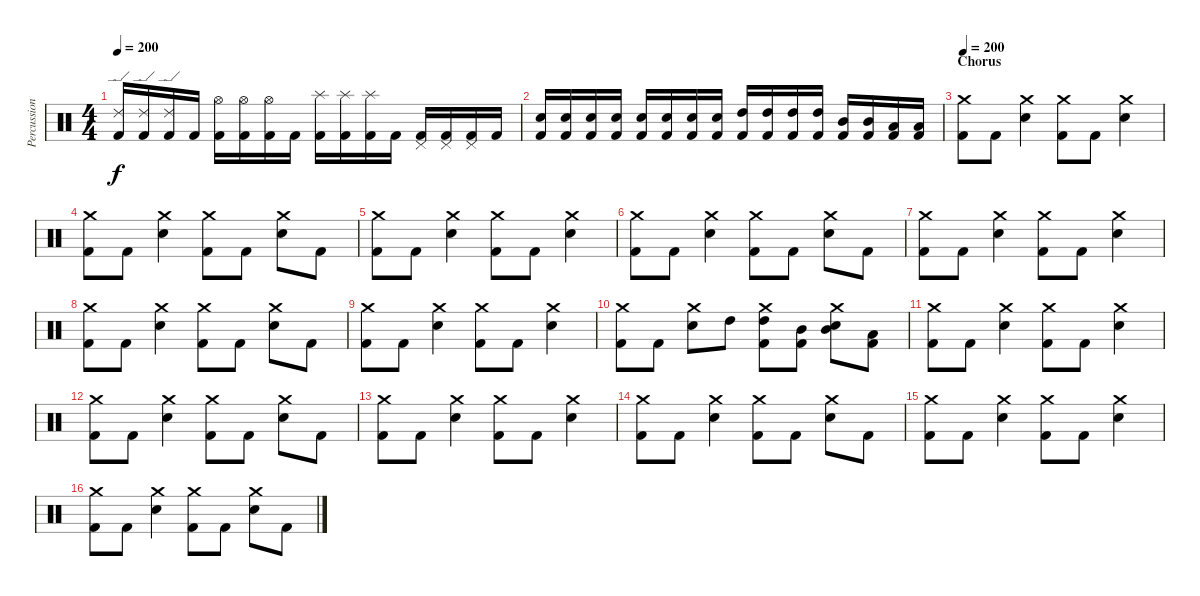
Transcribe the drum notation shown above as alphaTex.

\track ("Percussions" "Percussion") {instrument percussion}
\staff {score}
\articulation defaults
\ts (4 4)
\tempo 200
\clef neutral
\ks c
("Ride (edge) 2" "Kick (hit) 2").16{dy f} ("Ride (edge) 2" "Kick (hit) 2").16 ("Ride (edge) 2" "Kick (hit) 2").16 "Kick (hit) 2".16 ("Hi-Hat (open)" "Kick (hit) 2").16 ("Hi-Hat (open)" "Kick (hit) 2").16 ("Hi-Hat (open)" "Kick (hit) 2").16 "Kick (hit) 2".16 ("Splash (hit)" "Kick (hit) 2").16 ("Splash (hit)" "Kick (hit) 2").16 ("Splash (hit)" "Kick (hit) 2").16 "Kick (hit) 2".16 ("Pedal Hi-Hat (hit)" "Kick (hit) 2").16 ("Pedal Hi-Hat (hit)" "Kick (hit) 2").16 ("Pedal Hi-Hat (hit)" "Kick (hit) 2").16 "Kick (hit) 2".16 |
("Electric Snare (hit)" "Kick (hit) 2").16 ("Electric Snare (hit)" "Kick (hit) 2").16 ("Electric Snare (hit)" "Kick (hit) 2").16 ("Electric Snare (hit)" "Kick (hit) 2").16 ("Electric Snare (hit)" "Kick (hit) 2").16 ("Electric Snare (hit)" "Kick (hit) 2").16 ("Electric Snare (hit)" "Kick (hit) 2").16 ("Electric Snare (hit)" "Kick (hit) 2").16 ("High Tom (hit)" "Kick (hit) 2").16 ("High Tom (hit)" "Kick (hit) 2").16 ("High Tom (hit)" "Kick (hit) 2").16 ("High Tom (hit)" "Kick (hit) 2").16 ("Mid Tom (hit)" "Kick (hit) 2").16 ("Mid Tom (hit)" "Kick (hit) 2").16 ("Low Tom (hit)" "Kick (hit) 2").16 ("Low Tom (hit)" "Kick (hit) 2").16 |
\section ("" "Chorus")
\tempo 200
("Crash medium (hit)" "Kick (hit) 2").8 "Kick (hit) 2".8 ("Crash medium (hit)" "Electric Snare (hit)").4 ("Crash medium (hit)" "Kick (hit) 2").8 "Kick (hit) 2".8 ("Crash medium (hit)" "Electric Snare (hit)").4 |
("Crash medium (hit)" "Kick (hit) 2").8 "Kick (hit) 2".8 ("Crash medium (hit)" "Electric Snare (hit)").4 ("Crash medium (hit)" "Kick (hit) 2").8 "Kick (hit) 2".8 ("Crash medium (hit)" "Electric Snare (hit)").8 "Kick (hit) 2".8 |
("Crash medium (hit)" "Kick (hit) 2").8 "Kick (hit) 2".8 ("Crash medium (hit)" "Electric Snare (hit)").4 ("Crash medium (hit)" "Kick (hit) 2").8 "Kick (hit) 2".8 ("Crash medium (hit)" "Electric Snare (hit)").4 |
("Crash medium (hit)" "Kick (hit) 2").8 "Kick (hit) 2".8 ("Crash medium (hit)" "Electric Snare (hit)").4 ("Crash medium (hit)" "Kick (hit) 2").8 "Kick (hit) 2".8 ("Crash medium (hit)" "Electric Snare (hit)").8 "Kick (hit) 2".8 |
("Crash medium (hit)" "Kick (hit) 2").8 "Kick (hit) 2".8 ("Crash medium (hit)" "Electric Snare (hit)").4 ("Crash medium (hit)" "Kick (hit) 2").8 "Kick (hit) 2".8 ("Crash medium (hit)" "Electric Snare (hit)").4 |
("Crash medium (hit)" "Kick (hit) 2").8 "Kick (hit) 2".8 ("Crash medium (hit)" "Electric Snare (hit)").4 ("Crash medium (hit)" "Kick (hit) 2").8 "Kick (hit) 2".8 ("Crash medium (hit)" "Electric Snare (hit)").8 "Kick (hit) 2".8 |
("Crash medium (hit)" "Kick (hit) 2").8 "Kick (hit) 2".8 ("Crash medium (hit)" "Electric Snare (hit)").4 ("Crash medium (hit)" "Kick (hit) 2").8 "Kick (hit) 2".8 ("Crash medium (hit)" "Electric Snare (hit)").4 |
("Crash medium (hit)" "Kick (hit) 2").8 "Kick (hit) 2".8 ("Crash medium (hit)" "Electric Snare (hit)").8 "High Tom (hit)".8 ("Crash medium (hit)" "High Tom (hit)" "Kick (hit) 2").8 ("Mid Tom (hit)" "Kick (hit) 2").8 ("Crash medium (hit)" "Mid Tom (hit)" "Electric Snare (hit)").8 ("Low Tom (hit)" "Kick (hit) 2").8 |
("Crash medium (hit)" "Kick (hit) 2").8 "Kick (hit) 2".8 ("Crash medium (hit)" "Electric Snare (hit)").4 ("Crash medium (hit)" "Kick (hit) 2").8 "Kick (hit) 2".8 ("Crash medium (hit)" "Electric Snare (hit)").4 |
("Crash medium (hit)" "Kick (hit) 2").8 "Kick (hit) 2".8 ("Crash medium (hit)" "Electric Snare (hit)").4 ("Crash medium (hit)" "Kick (hit) 2").8 "Kick (hit) 2".8 ("Crash medium (hit)" "Electric Snare (hit)").8 "Kick (hit) 2".8 |
("Crash medium (hit)" "Kick (hit) 2").8 "Kick (hit) 2".8 ("Crash medium (hit)" "Electric Snare (hit)").4 ("Crash medium (hit)" "Kick (hit) 2").8 "Kick (hit) 2".8 ("Crash medium (hit)" "Electric Snare (hit)").4 |
("Crash medium (hit)" "Kick (hit) 2").8 "Kick (hit) 2".8 ("Crash medium (hit)" "Electric Snare (hit)").4 ("Crash medium (hit)" "Kick (hit) 2").8 "Kick (hit) 2".8 ("Crash medium (hit)" "Electric Snare (hit)").8 "Kick (hit) 2".8 |
("Crash medium (hit)" "Kick (hit) 2").8 "Kick (hit) 2".8 ("Crash medium (hit)" "Electric Snare (hit)").4 ("Crash medium (hit)" "Kick (hit) 2").8 "Kick (hit) 2".8 ("Crash medium (hit)" "Electric Snare (hit)").4 |
("Crash medium (hit)" "Kick (hit) 2").8 "Kick (hit) 2".8 ("Crash medium (hit)" "Electric Snare (hit)").4 ("Crash medium (hit)" "Kick (hit) 2").8 "Kick (hit) 2".8 ("Crash medium (hit)" "Electric Snare (hit)").8 "Kick (hit) 2".8
